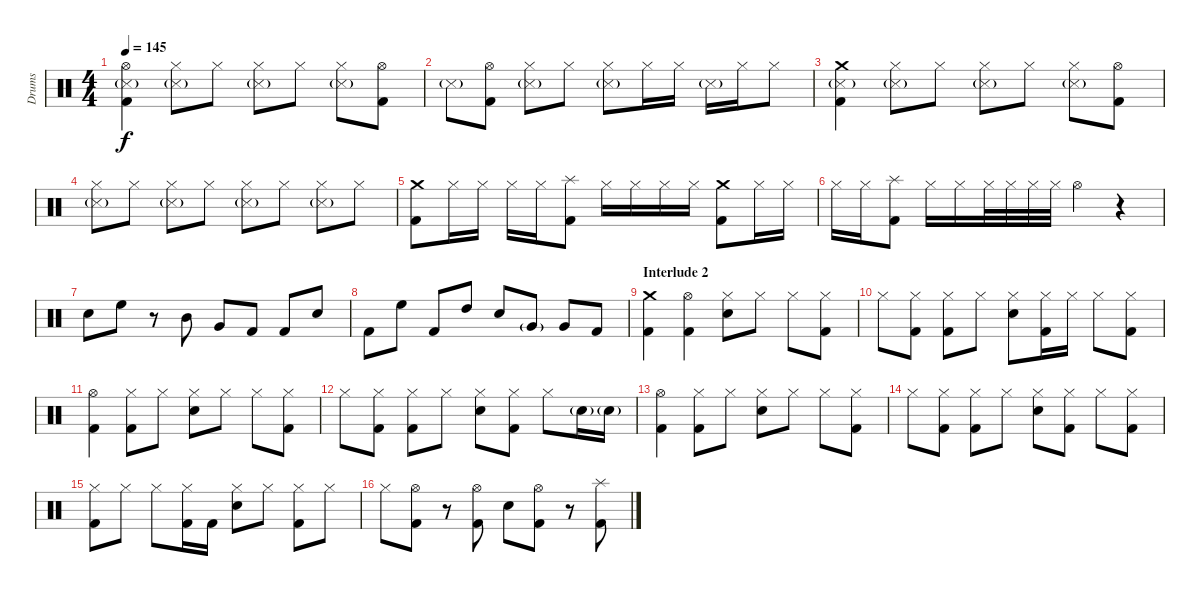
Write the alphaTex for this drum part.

\track ("Drums" "Drums") {instrument percussion}
\staff {score}
\articulation defaults
\ts (4 4)
\tempo 145
\clef neutral
\ks c
("Hi-Hat (open)" "Snare (side stick) 3"{g} "Kick (hit) 2").4{dy f} ("Hi-Hat (closed)" "Snare (side stick) 3"{g}).8 "Hi-Hat (closed)".8 ("Hi-Hat (closed)" "Snare (side stick) 3"{g}).8 "Hi-Hat (closed)".8 ("Hi-Hat (closed)" "Snare (side stick) 3"{g}).8 ("Hi-Hat (open)" "Kick (hit) 2").8 |
"Snare (side stick) 3"{g}.8 ("Hi-Hat (open)" "Kick (hit) 2").8 ("Hi-Hat (closed)" "Snare (side stick) 3"{g}).8 "Hi-Hat (closed)".8 ("Hi-Hat (closed)" "Snare (side stick) 3"{g}).8 "Hi-Hat (closed)".16 "Hi-Hat (closed)".16 "Snare (side stick) 3"{g}.16 "Hi-Hat (closed)".16 "Hi-Hat (closed)".8 |
("Crash medium (hit)" "Snare (side stick) 3"{g} "Kick (hit) 2").4 ("Hi-Hat (closed)" "Snare (side stick) 3"{g}).8 "Hi-Hat (closed)".8 ("Hi-Hat (closed)" "Snare (side stick) 3"{g}).8 "Hi-Hat (closed)".8 ("Hi-Hat (closed)" "Snare (side stick) 3"{g}).8 ("Hi-Hat (open)" "Kick (hit) 2").8 |
("Hi-Hat (closed)" "Snare (side stick) 3"{g}).8 "Hi-Hat (closed)".8 ("Hi-Hat (closed)" "Snare (side stick) 3"{g}).8 "Hi-Hat (closed)".8 ("Hi-Hat (closed)" "Snare (side stick) 3"{g}).8 "Hi-Hat (closed)".8 ("Hi-Hat (closed)" "Snare (side stick) 3"{g}).8 "Hi-Hat (closed)".8 |
("Crash medium (hit)" "Kick (hit) 2").8 "Hi-Hat (closed)".16 "Hi-Hat (closed)".16 "Hi-Hat (closed)".16 "Hi-Hat (closed)".16 ("Splash (hit)" "Kick (hit) 2").8 "Hi-Hat (closed)".16 "Hi-Hat (closed)".16 "Hi-Hat (closed)".16 "Hi-Hat (closed)".16 ("Crash medium (hit)" "Kick (hit) 2").8 "Hi-Hat (closed)".16 "Hi-Hat (closed)".16 |
"Hi-Hat (closed)".16 "Hi-Hat (closed)".16 ("Splash (hit)" "Kick (hit) 2").8 "Hi-Hat (closed)".16 "Hi-Hat (closed)".16 "Hi-Hat (closed)".32 "Hi-Hat (closed)".32 "Hi-Hat (closed)".32 "Hi-Hat (closed)".32 "Hi-Hat (open)".4 r.4 |
"Snare (hit) 2".8 "High Floor Tom (hit)".8 r.8 "Mid Tom (hit)".8 "Very Low Tom (hit)".8 "Kick (hit) 2".8 "Kick (hit) 2".8 "Snare (hit) 2".8 |
"Kick (hit) 2".8 "High Floor Tom (hit)".8 "Kick (hit) 2".8 "High Tom (hit)".8 "Snare (hit) 2".8 "Very Low Tom (hit)"{g}.8 "Very Low Tom (hit)".8 "Kick (hit) 2".8 |
\section ("" "Interlude 2")
("Crash medium (hit)" "Kick (hit) 2").4 ("Hi-Hat (open)" "Kick (hit) 2").4 ("Hi-Hat (closed)" "Snare (hit) 2").8 "Hi-Hat (closed)".8 "Hi-Hat (closed)".8 ("Hi-Hat (closed)" "Kick (hit) 2").8 |
"Hi-Hat (closed)".8 ("Hi-Hat (closed)" "Kick (hit) 2").8 ("Hi-Hat (closed)" "Kick (hit) 2").8 "Hi-Hat (closed)".8 ("Hi-Hat (closed)" "Snare (hit) 2").8 ("Hi-Hat (closed)" "Kick (hit) 2").16 "Hi-Hat (closed)".16 "Hi-Hat (closed)".8 ("Hi-Hat (closed)" "Kick (hit) 2").8 |
("Hi-Hat (open)" "Kick (hit) 2").4 ("Hi-Hat (closed)" "Kick (hit) 2").8 "Hi-Hat (closed)".8 ("Hi-Hat (closed)" "Snare (hit) 2").8 "Hi-Hat (closed)".8 "Hi-Hat (closed)".8 ("Hi-Hat (closed)" "Kick (hit) 2").8 |
"Hi-Hat (closed)".8 ("Hi-Hat (closed)" "Kick (hit) 2").8 ("Hi-Hat (closed)" "Kick (hit) 2").8 "Hi-Hat (closed)".8 ("Hi-Hat (closed)" "Snare (hit) 2").8 ("Hi-Hat (closed)" "Kick (hit) 2").8 "Hi-Hat (closed)".8 "Snare (hit) 2"{g}.16 "Snare (hit) 2"{g}.16 |
("Hi-Hat (open)" "Kick (hit) 2").4 ("Hi-Hat (closed)" "Kick (hit) 2").8 "Hi-Hat (closed)".8 ("Hi-Hat (closed)" "Snare (hit) 2").8 "Hi-Hat (closed)".8 "Hi-Hat (closed)".8 ("Hi-Hat (closed)" "Kick (hit) 2").8 |
"Hi-Hat (closed)".8 ("Hi-Hat (closed)" "Kick (hit) 2").8 ("Hi-Hat (closed)" "Kick (hit) 2").8 "Hi-Hat (closed)".8 ("Hi-Hat (closed)" "Snare (hit) 2").8 ("Hi-Hat (closed)" "Kick (hit) 2").8 "Hi-Hat (closed)".8 ("Hi-Hat (closed)" "Kick (hit) 2").8 |
("Hi-Hat (closed)" "Kick (hit) 2").8 "Hi-Hat (closed)".8 "Hi-Hat (closed)".8 ("Hi-Hat (closed)" "Kick (hit) 2").16 "Kick (hit) 2".16 ("Hi-Hat (closed)" "Snare (hit) 2").8 "Hi-Hat (closed)".8 ("Hi-Hat (closed)" "Kick (hit) 2").8 "Hi-Hat (closed)".8 |
"Hi-Hat (closed)".8 ("Hi-Hat (open)" "Kick (hit) 2").8 r.8 ("Hi-Hat (open)" "Kick (hit) 2").8 "Snare (hit) 2".8 ("Hi-Hat (open)" "Kick (hit) 2").8 r.8 ("Splash (hit)" "Kick (hit) 2").8
